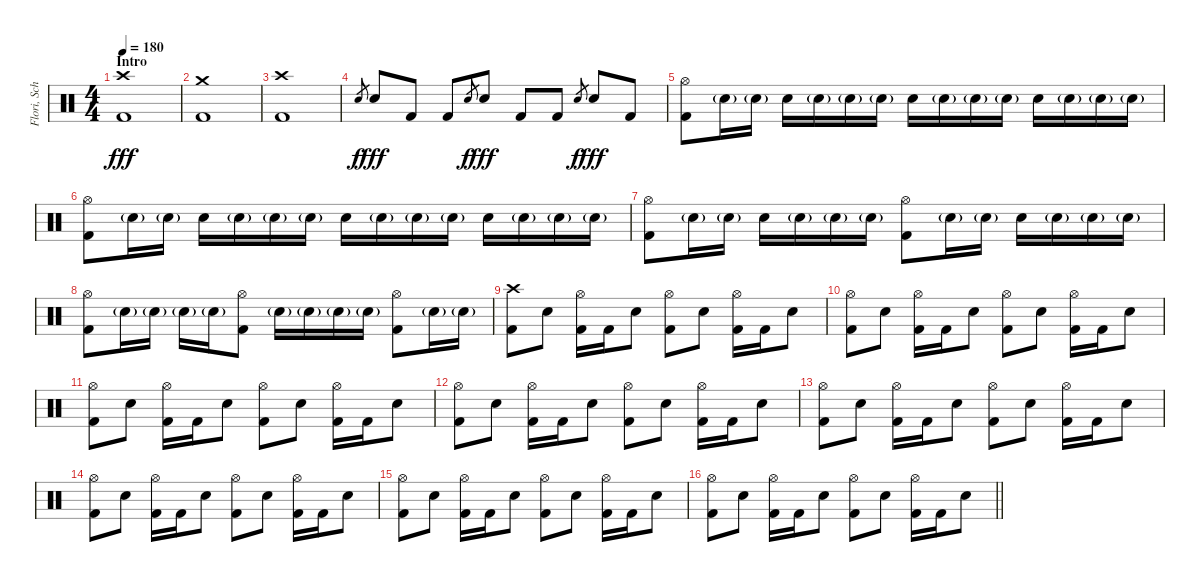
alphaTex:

\track ("Flori, Schlagzeug" "Flori, Sch") {instrument percussion}
\staff {score}
\articulation defaults
\ts (4 4)
\section ("" "Intro")
\tempo 180
\clef neutral
\ks c
("Crash high (hit)" "Kick (hit) 2").1{dy fff} |
("Crash medium (hit)" "Kick (hit) 2").1 |
("Crash high (hit)" "Kick (hit) 2").1 |
"Electric Snare (hit)".8{gr dy f} "Electric Snare (hit)".8{dy fff} "Kick (hit) 2".8 "Kick (hit) 2".8 "Electric Snare (hit)".8{gr dy f} "Electric Snare (hit)".8{dy fff} "Kick (hit) 2".8 "Kick (hit) 2".8 "Electric Snare (hit)".8{gr dy f} "Electric Snare (hit)".8{dy fff} "Kick (hit) 2".8 |
("Hi-Hat (open)" "Kick (hit) 2").8 "Electric Snare (hit)"{g}.16 "Electric Snare (hit)"{g}.16 "Electric Snare (hit)".16 "Electric Snare (hit)"{g}.16 "Electric Snare (hit)"{g}.16 "Electric Snare (hit)"{g}.16 "Electric Snare (hit)".16 "Electric Snare (hit)"{g}.16 "Electric Snare (hit)"{g}.16 "Electric Snare (hit)"{g}.16 "Electric Snare (hit)".16 "Electric Snare (hit)"{g}.16 "Electric Snare (hit)"{g}.16 "Electric Snare (hit)"{g}.16 |
("Hi-Hat (open)" "Kick (hit) 2").8 "Electric Snare (hit)"{g}.16 "Electric Snare (hit)"{g}.16 "Electric Snare (hit)".16 "Electric Snare (hit)"{g}.16 "Electric Snare (hit)"{g}.16 "Electric Snare (hit)"{g}.16 "Electric Snare (hit)".16 "Electric Snare (hit)"{g}.16 "Electric Snare (hit)"{g}.16 "Electric Snare (hit)"{g}.16 "Electric Snare (hit)".16 "Electric Snare (hit)"{g}.16 "Electric Snare (hit)"{g}.16 "Electric Snare (hit)"{g}.16 |
("Hi-Hat (open)" "Kick (hit) 2").8 "Electric Snare (hit)"{g}.16 "Electric Snare (hit)"{g}.16 "Electric Snare (hit)".16 "Electric Snare (hit)"{g}.16 "Electric Snare (hit)"{g}.16 "Electric Snare (hit)"{g}.16 ("Hi-Hat (open)" "Kick (hit) 2").8 "Electric Snare (hit)"{g}.16 "Electric Snare (hit)"{g}.16 "Electric Snare (hit)".16 "Electric Snare (hit)"{g}.16 "Electric Snare (hit)"{g}.16 "Electric Snare (hit)"{g}.16 |
("Hi-Hat (open)" "Kick (hit) 2").8 "Electric Snare (hit)"{g}.16 "Electric Snare (hit)"{g}.16 "Electric Snare (hit)"{g}.16 "Electric Snare (hit)"{g}.16 ("Hi-Hat (open)" "Kick (hit) 2").8 "Electric Snare (hit)"{g}.16 "Electric Snare (hit)"{g}.16 "Electric Snare (hit)"{g}.16 "Electric Snare (hit)"{g}.16 ("Hi-Hat (open)" "Kick (hit) 2").8 "Electric Snare (hit)"{g}.16 "Electric Snare (hit)"{g}.16 |
("Crash high (hit)" "Kick (hit) 2").8 "Electric Snare (hit)".8 ("Hi-Hat (open)" "Kick (hit) 2").16 "Kick (hit) 2".16 "Electric Snare (hit)".8 ("Hi-Hat (open)" "Kick (hit) 2").8 "Electric Snare (hit)".8 ("Hi-Hat (open)" "Kick (hit) 2").16 "Kick (hit) 2".16 "Electric Snare (hit)".8 |
("Hi-Hat (open)" "Kick (hit) 2").8 "Electric Snare (hit)".8 ("Hi-Hat (open)" "Kick (hit) 2").16 "Kick (hit) 2".16 "Electric Snare (hit)".8 ("Hi-Hat (open)" "Kick (hit) 2").8 "Electric Snare (hit)".8 ("Hi-Hat (open)" "Kick (hit) 2").16 "Kick (hit) 2".16 "Electric Snare (hit)".8 |
("Hi-Hat (open)" "Kick (hit) 2").8 "Electric Snare (hit)".8 ("Hi-Hat (open)" "Kick (hit) 2").16 "Kick (hit) 2".16 "Electric Snare (hit)".8 ("Hi-Hat (open)" "Kick (hit) 2").8 "Electric Snare (hit)".8 ("Hi-Hat (open)" "Kick (hit) 2").16 "Kick (hit) 2".16 "Electric Snare (hit)".8 |
("Hi-Hat (open)" "Kick (hit) 2").8 "Electric Snare (hit)".8 ("Hi-Hat (open)" "Kick (hit) 2").16 "Kick (hit) 2".16 "Electric Snare (hit)".8 ("Hi-Hat (open)" "Kick (hit) 2").8 "Electric Snare (hit)".8 ("Hi-Hat (open)" "Kick (hit) 2").16 "Kick (hit) 2".16 "Electric Snare (hit)".8 |
("Hi-Hat (open)" "Kick (hit) 2").8 "Electric Snare (hit)".8 ("Hi-Hat (open)" "Kick (hit) 2").16 "Kick (hit) 2".16 "Electric Snare (hit)".8 ("Hi-Hat (open)" "Kick (hit) 2").8 "Electric Snare (hit)".8 ("Hi-Hat (open)" "Kick (hit) 2").16 "Kick (hit) 2".16 "Electric Snare (hit)".8 |
("Hi-Hat (open)" "Kick (hit) 2").8 "Electric Snare (hit)".8 ("Hi-Hat (open)" "Kick (hit) 2").16 "Kick (hit) 2".16 "Electric Snare (hit)".8 ("Hi-Hat (open)" "Kick (hit) 2").8 "Electric Snare (hit)".8 ("Hi-Hat (open)" "Kick (hit) 2").16 "Kick (hit) 2".16 "Electric Snare (hit)".8 |
("Hi-Hat (open)" "Kick (hit) 2").8 "Electric Snare (hit)".8 ("Hi-Hat (open)" "Kick (hit) 2").16 "Kick (hit) 2".16 "Electric Snare (hit)".8 ("Hi-Hat (open)" "Kick (hit) 2").8 "Electric Snare (hit)".8 ("Hi-Hat (open)" "Kick (hit) 2").16 "Kick (hit) 2".16 "Electric Snare (hit)".8 |
\barLineRight lightlight
("Hi-Hat (open)" "Kick (hit) 2").8 "Electric Snare (hit)".8 ("Hi-Hat (open)" "Kick (hit) 2").16 "Kick (hit) 2".16 "Electric Snare (hit)".8 ("Hi-Hat (open)" "Kick (hit) 2").8 "Electric Snare (hit)".8 ("Hi-Hat (open)" "Kick (hit) 2").16 "Kick (hit) 2".16 "Electric Snare (hit)".8
